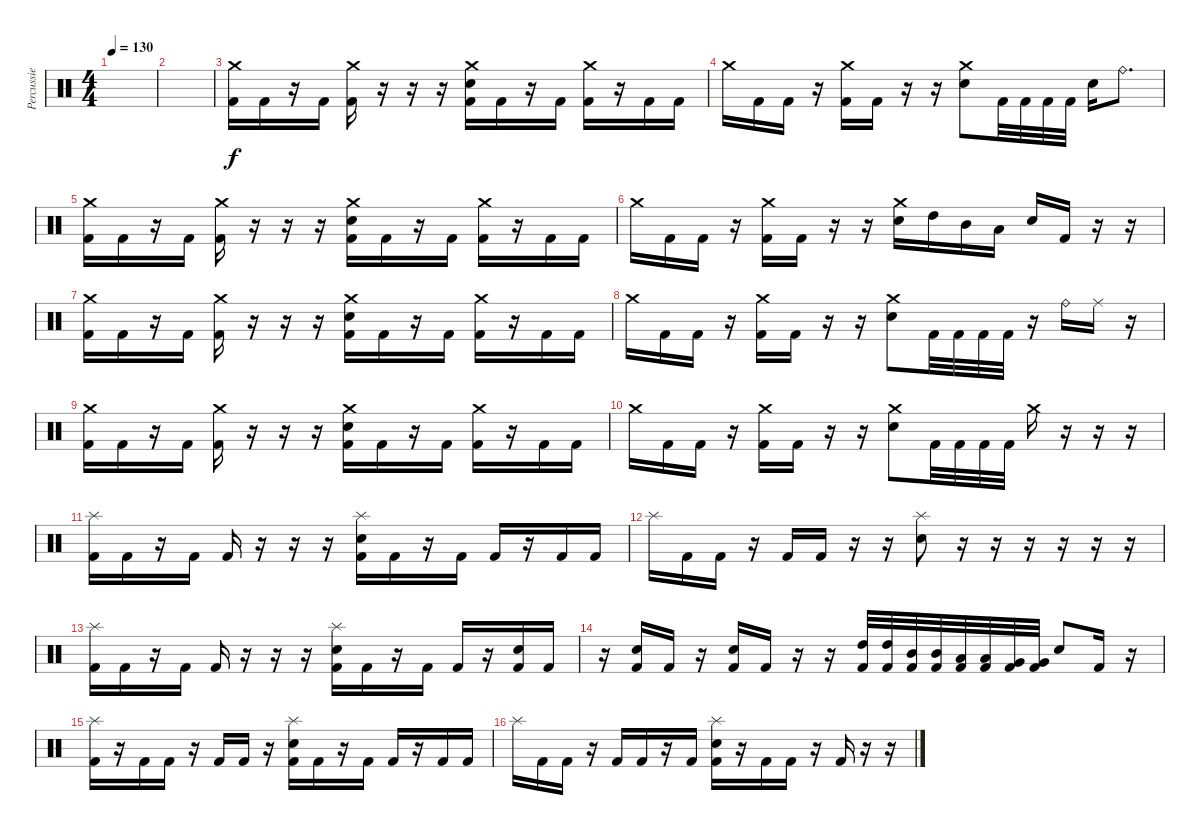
\track ("Percussie" "Percussie") {instrument percussion}
\staff {score}
\articulation defaults
\ts (4 4)
\tempo 130
\clef neutral
\ks c
|
|
("Crash medium (hit)" "Kick (hit) 2").16 "Kick (hit) 2".16 r.16 "Kick (hit) 2".16 ("Crash medium (hit)" "Kick (hit) 2").16 r.16 r.16 r.16 ("Crash medium (hit)" "Electric Snare (hit)" "Kick (hit) 2").16 "Kick (hit) 2".16 r.16 "Kick (hit) 2".16 ("Crash medium (hit)" "Kick (hit) 2").16 r.16 "Kick (hit) 2".16 "Kick (hit) 2".16 |
"Crash medium (hit)".16 "Kick (hit) 2".16 "Kick (hit) 2".16 r.16 ("Crash medium (hit)" "Kick (hit) 2").16 "Kick (hit) 2".16 r.16 r.16 ("Crash medium (hit)" "Electric Snare (hit)").8 "Kick (hit) 2".32 "Kick (hit) 2".32 "Kick (hit) 2".32 "Kick (hit) 2".32 "Electric Snare (hit)".16 "Ride (bell)".8{d} |
("Crash medium (hit)" "Kick (hit) 2").16 "Kick (hit) 2".16 r.16 "Kick (hit) 2".16 ("Crash medium (hit)" "Kick (hit) 2").16 r.16 r.16 r.16 ("Crash medium (hit)" "Electric Snare (hit)" "Kick (hit) 2").16 "Kick (hit) 2".16 r.16 "Kick (hit) 2".16 ("Crash medium (hit)" "Kick (hit) 2").16 r.16 "Kick (hit) 2".16 "Kick (hit) 2".16 |
"Crash medium (hit)".16 "Kick (hit) 2".16 "Kick (hit) 2".16 r.16 ("Crash medium (hit)" "Kick (hit) 2").16 "Kick (hit) 2".16 r.16 r.16 ("Crash medium (hit)" "Electric Snare (hit)").16 "High Tom (hit)".16 "Mid Tom (hit)".16 "Low Tom (hit)".16 "Electric Snare (hit)".16 "Kick (hit) 2".16 r.16 r.16 |
("Crash medium (hit)" "Kick (hit) 2").16 "Kick (hit) 2".16 r.16 "Kick (hit) 2".16 ("Crash medium (hit)" "Kick (hit) 2").16 r.16 r.16 r.16 ("Crash medium (hit)" "Electric Snare (hit)" "Kick (hit) 2").16 "Kick (hit) 2".16 r.16 "Kick (hit) 2".16 ("Crash medium (hit)" "Kick (hit) 2").16 r.16 "Kick (hit) 2".16 "Kick (hit) 2".16 |
"Crash medium (hit)".16 "Kick (hit) 2".16 "Kick (hit) 2".16 r.16 ("Crash medium (hit)" "Kick (hit) 2").16 "Kick (hit) 2".16 r.16 r.16 ("Crash medium (hit)" "Electric Snare (hit)").8 "Kick (hit) 2".32 "Kick (hit) 2".32 "Kick (hit) 2".32 "Kick (hit) 2".32 r.16 "Ride (bell)".16 "Ride (middle)".16 r.16 |
("Crash medium (hit)" "Kick (hit) 2").16 "Kick (hit) 2".16 r.16 "Kick (hit) 2".16 ("Crash medium (hit)" "Kick (hit) 2").16 r.16 r.16 r.16 ("Crash medium (hit)" "Electric Snare (hit)" "Kick (hit) 2").16 "Kick (hit) 2".16 r.16 "Kick (hit) 2".16 ("Crash medium (hit)" "Kick (hit) 2").16 r.16 "Kick (hit) 2".16 "Kick (hit) 2".16 |
"Crash medium (hit)".16 "Kick (hit) 2".16 "Kick (hit) 2".16 r.16 ("Crash medium (hit)" "Kick (hit) 2").16 "Kick (hit) 2".16 r.16 r.16 ("Crash medium (hit)" "Electric Snare (hit)").8 "Kick (hit) 2".32 "Kick (hit) 2".32 "Kick (hit) 2".32 "Kick (hit) 2".32 "Crash medium (hit)".16 r.16 r.16 r.16 |
("Splash (hit)" "Kick (hit) 2").16 "Kick (hit) 2".16 r.16 "Kick (hit) 2".16 "Kick (hit) 2".16 r.16 r.16 r.16 ("Splash (hit)" "Electric Snare (hit)" "Kick (hit) 2").16 "Kick (hit) 2".16 r.16 "Kick (hit) 2".16 "Kick (hit) 2".16 r.16 "Kick (hit) 2".16 "Kick (hit) 2".16 |
"Splash (hit)".16 "Kick (hit) 2".16 "Kick (hit) 2".16 r.16 "Kick (hit) 2".16 "Kick (hit) 2".16 r.16 r.16 ("Splash (hit)" "Electric Snare (hit)").8 r.16 r.16 r.16 r.16 r.16 r.16 |
("Splash (hit)" "Kick (hit) 2").16 "Kick (hit) 2".16 r.16 "Kick (hit) 2".16 "Kick (hit) 2".16 r.16 r.16 r.16 ("Splash (hit)" "Electric Snare (hit)" "Kick (hit) 2").16 "Kick (hit) 2".16 r.16 "Kick (hit) 2".16 "Kick (hit) 2".16 r.16 ("Electric Snare (hit)" "Kick (hit) 2").16 "Kick (hit) 2".16 |
r.16 ("Electric Snare (hit)" "Kick (hit) 2").16 "Kick (hit) 2".16 r.16 ("Electric Snare (hit)" "Kick (hit) 2").16 "Kick (hit) 2".16 r.16 r.16 ("High Tom (hit)" "Kick (hit) 2").32 ("High Tom (hit)" "Kick (hit) 2").32 ("Mid Tom (hit)" "Kick (hit) 2").32 ("Mid Tom (hit)" "Kick (hit) 2").32 ("Low Tom (hit)" "Kick (hit) 2").32 ("Low Tom (hit)" "Kick (hit) 2").32 ("Very Low Tom (hit)" "Kick (hit) 2").32 ("Very Low Tom (hit)" "Kick (hit) 2").32 "Electric Snare (hit)".8 "Kick (hit) 2".16 r.16 |
("Splash (hit)" "Kick (hit) 2").16 r.16 "Kick (hit) 2".16 "Kick (hit) 2".16 r.16 "Kick (hit) 2".16 "Kick (hit) 2".16 r.16 ("Splash (hit)" "Electric Snare (hit)" "Kick (hit) 2").16 "Kick (hit) 2".16 r.16 "Kick (hit) 2".16 "Kick (hit) 2".16 r.16 "Kick (hit) 2".16 "Kick (hit) 2".16 |
"Splash (hit)".16 "Kick (hit) 2".16 "Kick (hit) 2".16 r.16 "Kick (hit) 2".16 "Kick (hit) 2".16 r.16 "Kick (hit) 2".16 ("Splash (hit)" "Electric Snare (hit)" "Kick (hit) 2").16 r.16 "Kick (hit) 2".16 "Kick (hit) 2".16 r.16 "Kick (hit) 2".16 r.16 r.16
